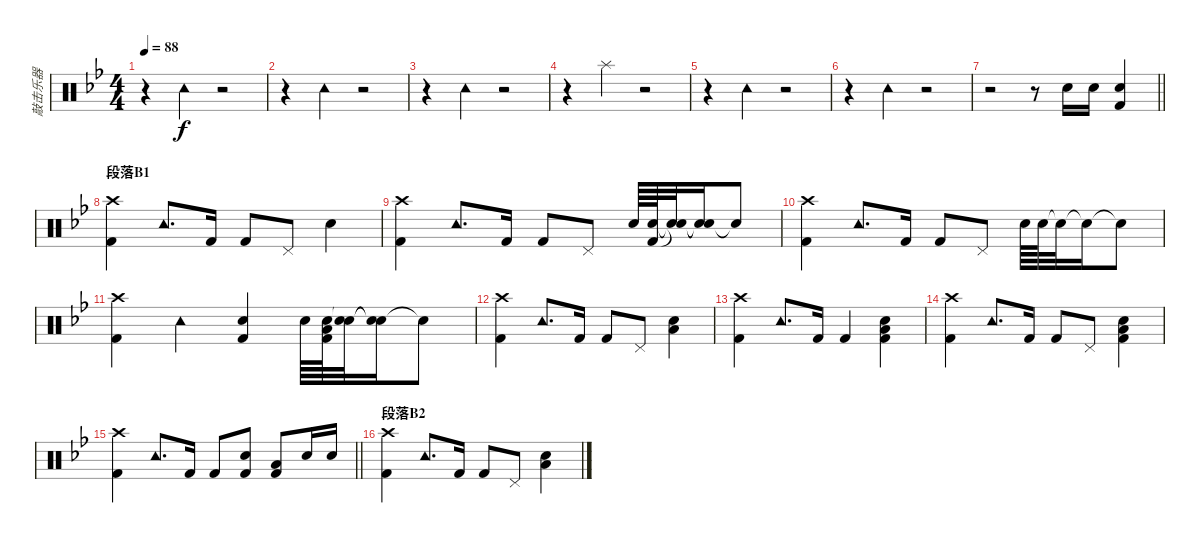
\track ("敲击乐器" "敲击乐器") {instrument percussion}
\staff {score}
\articulation defaults
\ts (4 4)
\tempo 88
\clef neutral
\ks bb
r.4{dy f} "Tambourine (hit)".4 r.2 |
r.4 "Tambourine (hit)".4 r.2 |
r.4 "Tambourine (hit)".4 r.2 |
r.4 "Splash (hit)".4 r.2 |
r.4 "Tambourine (hit)".4 r.2 |
r.4 "Tambourine (hit)".4 r.2 |
\barLineRight lightlight
r.2 r.8 "Snare (hit) 2".16 "Snare (hit) 2".16 ("Snare (hit) 2" "Kick (hit) 2").4 |
\section ("" "段落B1")
("Crash high (hit)" "Kick (hit) 2").4 "Tambourine (hit)".8{d} "Kick (hit) 2".16 "Kick (hit) 2".8 "Pedal Hi-Hat (hit)".8 "Snare (hit) 2".4 |
("Crash high (hit)" "Kick (hit) 2").4 "Tambourine (hit)".8{d} "Kick (hit) 2".16 "Kick (hit) 2".8 "Pedal Hi-Hat (hit)".8 "Snare (hit) 2".64 ("Snare (hit) 2" "Kick (hit) 2").64 ("Snare (hit)"{t} "Snare (hit)"{t}).32 ("Snare (hit)"{t} "Snare (hit)"{t}).16 "Snare (hit)"{t}.8 |
("Crash high (hit)" "Kick (hit) 2").4 "Tambourine (hit)".8{d} "Kick (hit) 2".16 "Kick (hit) 2".8 "Pedal Hi-Hat (hit)".8 "Snare (hit) 2".64 "Snare (hit) 2".64 "Snare (hit)"{t}.32 "Snare (hit)"{t}.16 "Snare (hit)"{t}.8 |
("Crash high (hit)" "Kick (hit) 2").4 "Tambourine (hit)".4 ("Snare (hit) 2" "Kick (hit) 2").4 "Snare (hit) 2".64 ("Snare (hit) 2" "Low Floor Tom (hit)" "Kick (hit) 2").64 ("Snare (hit)"{t} "Snare (hit)"{t}).32 ("Snare (hit)"{t} "Snare (hit)"{t}).16 "Snare (hit)"{t}.8 |
("Crash high (hit)" "Kick (hit) 2").4 "Tambourine (hit)".8{d} "Kick (hit) 2".16 "Kick (hit) 2".8 "Pedal Hi-Hat (hit)".8 ("Snare (hit) 2" "Low Floor Tom (hit)").4 |
("Crash high (hit)" "Kick (hit) 2").4 "Tambourine (hit)".8{d} "Kick (hit) 2".16 "Kick (hit) 2".4 ("Snare (hit) 2" "Low Floor Tom (hit)" "Kick (hit) 2").4 |
("Crash high (hit)" "Kick (hit) 2").4 "Tambourine (hit)".8{d} "Kick (hit) 2".16 "Kick (hit) 2".8 "Pedal Hi-Hat (hit)".8 ("Snare (hit) 2" "Low Floor Tom (hit)" "Kick (hit) 2").4 |
\barLineRight lightlight
("Crash high (hit)" "Kick (hit) 2").4 "Tambourine (hit)".8{d} "Kick (hit) 2".16 "Kick (hit) 2".8 ("Snare (hit) 2" "Kick (hit) 2").8 ("Low Floor Tom (hit)" "Kick (hit) 2").8 "Snare (hit) 2".16 "Snare (hit) 2".16 |
\section ("" "段落B2")
("Crash high (hit)" "Kick (hit) 2").4 "Tambourine (hit)".8{d} "Kick (hit) 2".16 "Kick (hit) 2".8 "Pedal Hi-Hat (hit)".8 ("Snare (hit) 2" "Low Floor Tom (hit)").4
